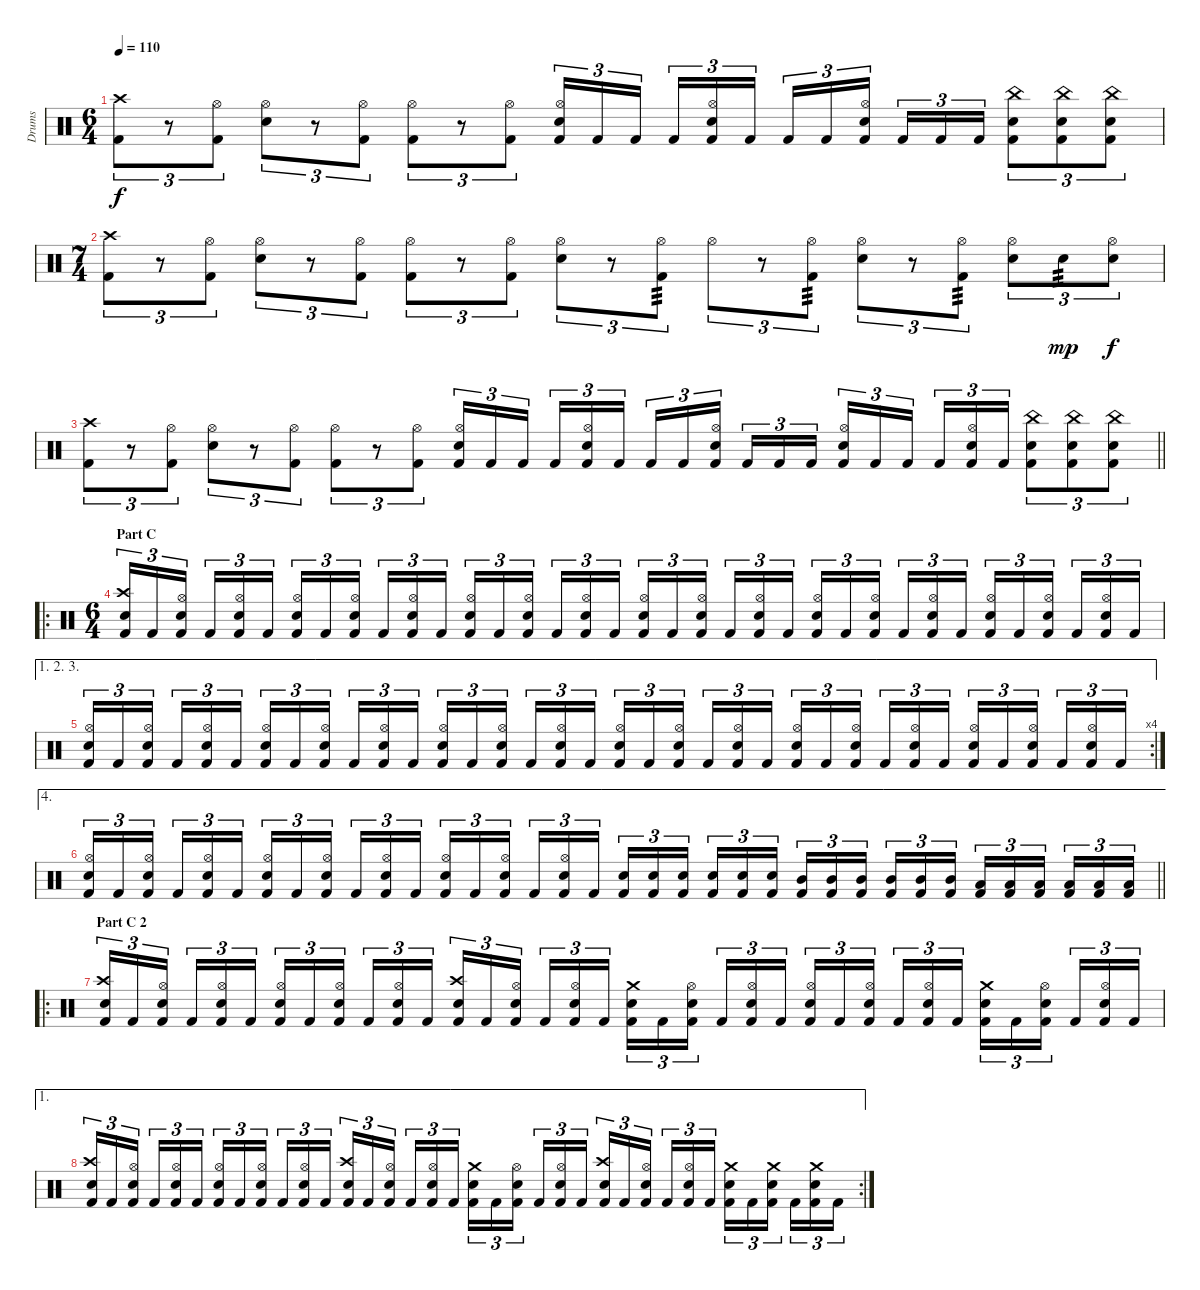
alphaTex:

\track ("Drums" "Drums") {instrument percussion}
\staff {score}
\articulation defaults
\ts (6 4)
\tempo 110
\clef neutral
\ks c
("Kick (hit) 2" "Crash high (hit)").8{tu (3 2) dy f} r.8{tu (3 2)} ("Hi-Hat (open)" "Kick (hit) 2").8{tu (3 2)} ("Hi-Hat (open)" "Snare (hit) 2").8{tu (3 2)} r.8{tu (3 2)} ("Hi-Hat (open)" "Kick (hit) 2").8{tu (3 2)} ("Hi-Hat (open)" "Kick (hit) 2").8{tu (3 2)} r.8{tu (3 2)} ("Hi-Hat (open)" "Kick (hit) 2").8{tu (3 2)} ("Hi-Hat (open)" "Snare (hit) 2" "Kick (hit) 2").16{tu (3 2)} "Kick (hit) 2".16{tu (3 2)} "Kick (hit) 2".16{tu (3 2) beam splitsecondary} "Kick (hit) 2".16{tu (3 2)} ("Kick (hit) 2" "Snare (hit) 2" "Hi-Hat (open)").16{tu (3 2)} "Kick (hit) 2".16{tu (3 2) beam splitsecondary} "Kick (hit) 2".16{tu (3 2)} "Kick (hit) 2".16{tu (3 2)} ("Kick (hit) 2" "Snare (hit) 2" "Hi-Hat (open)").16{tu (3 2) beam splitsecondary} "Kick (hit) 2".16{tu (3 2)} "Kick (hit) 2".16{tu (3 2)} "Kick (hit) 2".16{tu (3 2)} ("Kick (hit) 2" "Snare (hit) 2" "China (hit)").8{tu (3 2)} ("Kick (hit) 2" "Snare (hit) 2" "China (hit)").8{tu (3 2)} ("Snare (hit) 2" "Kick (hit) 2" "China (hit)").8{tu (3 2)} |
\ts (7 4)
("Kick (hit) 2" "Crash high (hit)").8{tu (3 2)} r.8{tu (3 2)} ("Hi-Hat (open)" "Kick (hit) 2").8{tu (3 2)} ("Hi-Hat (open)" "Snare (hit) 2").8{tu (3 2)} r.8{tu (3 2)} ("Hi-Hat (open)" "Kick (hit) 2").8{tu (3 2)} ("Hi-Hat (open)" "Kick (hit) 2").8{tu (3 2)} r.8{tu (3 2)} ("Hi-Hat (open)" "Kick (hit) 2").8{tu (3 2)} ("Hi-Hat (open)" "Snare (hit) 2").8{tu (3 2)} r.8{tu (3 2)} ("Kick (hit) 2" "Hi-Hat (open)").8{tu (3 2) tp 3} "Hi-Hat (open)".8{tu (3 2)} r.8{tu (3 2)} ("Kick (hit) 2" "Hi-Hat (open)").8{tu (3 2) tp 3} ("Hi-Hat (open)" "Snare (hit) 2").8{tu (3 2)} r.8{tu (3 2)} ("Kick (hit) 2" "Hi-Hat (open)").8{tu (3 2) tp 3} ("Snare (hit) 2" "Hi-Hat (open)").8{tu (3 2)} "Snare (hit) 2".8{tu (3 2) tp 3 dy mp} ("Snare (hit) 2" "Hi-Hat (open)").8{tu (3 2) dy f} |
\barLineRight lightlight
("Kick (hit) 2" "Crash high (hit)").8{tu (3 2)} r.8{tu (3 2)} ("Hi-Hat (open)" "Kick (hit) 2").8{tu (3 2)} ("Hi-Hat (open)" "Snare (hit) 2").8{tu (3 2)} r.8{tu (3 2)} ("Hi-Hat (open)" "Kick (hit) 2").8{tu (3 2)} ("Hi-Hat (open)" "Kick (hit) 2").8{tu (3 2)} r.8{tu (3 2)} ("Hi-Hat (open)" "Kick (hit) 2").8{tu (3 2)} ("Hi-Hat (open)" "Snare (hit) 2" "Kick (hit) 2").16{tu (3 2)} "Kick (hit) 2".16{tu (3 2)} "Kick (hit) 2".16{tu (3 2) beam splitsecondary} "Kick (hit) 2".16{tu (3 2)} ("Kick (hit) 2" "Snare (hit) 2" "Hi-Hat (open)").16{tu (3 2)} "Kick (hit) 2".16{tu (3 2)} "Kick (hit) 2".16{tu (3 2)} "Kick (hit) 2".16{tu (3 2)} ("Kick (hit) 2" "Snare (hit) 2" "Hi-Hat (open)").16{tu (3 2) beam splitsecondary} "Kick (hit) 2".16{tu (3 2)} "Kick (hit) 2".16{tu (3 2)} "Kick (hit) 2".16{tu (3 2)} ("Kick (hit) 2" "Snare (hit) 2" "Hi-Hat (open)").16{tu (3 2)} "Kick (hit) 2".16{tu (3 2)} "Kick (hit) 2".16{tu (3 2) beam splitsecondary} "Kick (hit) 2".16{tu (3 2)} ("Kick (hit) 2" "Snare (hit) 2" "Hi-Hat (open)").16{tu (3 2)} "Kick (hit) 2".16{tu (3 2)} ("Kick (hit) 2" "Snare (hit) 2" "China (hit)").8{tu (3 2)} ("Kick (hit) 2" "Snare (hit) 2" "China (hit)").8{tu (3 2)} ("Snare (hit) 2" "Kick (hit) 2" "China (hit)").8{tu (3 2)} |
\ro
\ts (6 4)
\section ("" "Part C")
("Snare (hit) 2" "Kick (hit) 2" "Crash high (hit)").16{tu (3 2)} "Kick (hit) 2".16{tu (3 2)} ("Kick (hit) 2" "Snare (hit) 2" "Hi-Hat (open)").16{tu (3 2) beam splitsecondary} "Kick (hit) 2".16{tu (3 2)} ("Kick (hit) 2" "Snare (hit) 2" "Hi-Hat (open)").16{tu (3 2)} "Kick (hit) 2".16{tu (3 2) beam splitsecondary} ("Kick (hit) 2" "Snare (hit) 2" "Hi-Hat (open)").16{tu (3 2)} "Kick (hit) 2".16{tu (3 2)} ("Kick (hit) 2" "Snare (hit) 2" "Hi-Hat (open)").16{tu (3 2) beam splitsecondary} "Kick (hit) 2".16{tu (3 2)} ("Kick (hit) 2" "Snare (hit) 2" "Hi-Hat (open)").16{tu (3 2)} "Kick (hit) 2".16{tu (3 2) beam splitsecondary} ("Snare (hit) 2" "Kick (hit) 2" "Hi-Hat (open)").16{tu (3 2)} "Kick (hit) 2".16{tu (3 2)} ("Kick (hit) 2" "Snare (hit) 2" "Hi-Hat (open)").16{tu (3 2) beam splitsecondary} "Kick (hit) 2".16{tu (3 2)} ("Kick (hit) 2" "Snare (hit) 2" "Hi-Hat (open)").16{tu (3 2)} "Kick (hit) 2".16{tu (3 2)} ("Snare (hit) 2" "Kick (hit) 2" "Hi-Hat (open)").16{tu (3 2)} "Kick (hit) 2".16{tu (3 2)} ("Kick (hit) 2" "Snare (hit) 2" "Hi-Hat (open)").16{tu (3 2) beam splitsecondary} "Kick (hit) 2".16{tu (3 2)} ("Kick (hit) 2" "Snare (hit) 2" "Hi-Hat (open)").16{tu (3 2)} "Kick (hit) 2".16{tu (3 2) beam splitsecondary} ("Kick (hit) 2" "Snare (hit) 2" "Hi-Hat (open)").16{tu (3 2)} "Kick (hit) 2".16{tu (3 2)} ("Kick (hit) 2" "Snare (hit) 2" "Hi-Hat (open)").16{tu (3 2) beam splitsecondary} "Kick (hit) 2".16{tu (3 2)} ("Kick (hit) 2" "Snare (hit) 2" "Hi-Hat (open)").16{tu (3 2)} "Kick (hit) 2".16{tu (3 2) beam splitsecondary} ("Kick (hit) 2" "Snare (hit) 2" "Hi-Hat (open)").16{tu (3 2)} "Kick (hit) 2".16{tu (3 2)} ("Kick (hit) 2" "Snare (hit) 2" "Hi-Hat (open)").16{tu (3 2) beam splitsecondary} "Kick (hit) 2".16{tu (3 2)} ("Kick (hit) 2" "Snare (hit) 2" "Hi-Hat (open)").16{tu (3 2)} "Kick (hit) 2".16{tu (3 2)} |
\ae (1 2 3)
\rc 4
("Snare (hit) 2" "Kick (hit) 2" "Hi-Hat (open)").16{tu (3 2)} "Kick (hit) 2".16{tu (3 2)} ("Kick (hit) 2" "Snare (hit) 2" "Hi-Hat (open)").16{tu (3 2) beam splitsecondary} "Kick (hit) 2".16{tu (3 2)} ("Kick (hit) 2" "Snare (hit) 2" "Hi-Hat (open)").16{tu (3 2)} "Kick (hit) 2".16{tu (3 2) beam splitsecondary} ("Kick (hit) 2" "Snare (hit) 2" "Hi-Hat (open)").16{tu (3 2)} "Kick (hit) 2".16{tu (3 2)} ("Kick (hit) 2" "Snare (hit) 2" "Hi-Hat (open)").16{tu (3 2) beam splitsecondary} "Kick (hit) 2".16{tu (3 2)} ("Kick (hit) 2" "Snare (hit) 2" "Hi-Hat (open)").16{tu (3 2)} "Kick (hit) 2".16{tu (3 2) beam splitsecondary} ("Snare (hit) 2" "Kick (hit) 2" "Hi-Hat (open)").16{tu (3 2)} "Kick (hit) 2".16{tu (3 2)} ("Kick (hit) 2" "Snare (hit) 2" "Hi-Hat (open)").16{tu (3 2) beam splitsecondary} "Kick (hit) 2".16{tu (3 2)} ("Kick (hit) 2" "Snare (hit) 2" "Hi-Hat (open)").16{tu (3 2)} "Kick (hit) 2".16{tu (3 2)} ("Snare (hit) 2" "Kick (hit) 2" "Hi-Hat (open)").16{tu (3 2)} "Kick (hit) 2".16{tu (3 2)} ("Kick (hit) 2" "Snare (hit) 2" "Hi-Hat (open)").16{tu (3 2) beam splitsecondary} "Kick (hit) 2".16{tu (3 2)} ("Kick (hit) 2" "Snare (hit) 2" "Hi-Hat (open)").16{tu (3 2)} "Kick (hit) 2".16{tu (3 2) beam splitsecondary} ("Kick (hit) 2" "Snare (hit) 2" "Hi-Hat (open)").16{tu (3 2)} "Kick (hit) 2".16{tu (3 2)} ("Kick (hit) 2" "Snare (hit) 2" "Hi-Hat (open)").16{tu (3 2) beam splitsecondary} "Kick (hit) 2".16{tu (3 2)} ("Kick (hit) 2" "Snare (hit) 2" "Hi-Hat (open)").16{tu (3 2)} "Kick (hit) 2".16{tu (3 2) beam splitsecondary} ("Kick (hit) 2" "Snare (hit) 2" "Hi-Hat (open)").16{tu (3 2)} "Kick (hit) 2".16{tu (3 2)} ("Kick (hit) 2" "Snare (hit) 2" "Hi-Hat (open)").16{tu (3 2) beam splitsecondary} "Kick (hit) 2".16{tu (3 2)} ("Kick (hit) 2" "Snare (hit) 2" "Hi-Hat (open)").16{tu (3 2)} "Kick (hit) 2".16{tu (3 2)} |
\ae 4
\barLineRight lightlight
("Snare (hit) 2" "Kick (hit) 2" "Hi-Hat (open)").16{tu (3 2)} "Kick (hit) 2".16{tu (3 2)} ("Kick (hit) 2" "Snare (hit) 2" "Hi-Hat (open)").16{tu (3 2) beam splitsecondary} "Kick (hit) 2".16{tu (3 2)} ("Kick (hit) 2" "Snare (hit) 2" "Hi-Hat (open)").16{tu (3 2)} "Kick (hit) 2".16{tu (3 2) beam splitsecondary} ("Kick (hit) 2" "Snare (hit) 2" "Hi-Hat (open)").16{tu (3 2)} "Kick (hit) 2".16{tu (3 2)} ("Kick (hit) 2" "Snare (hit) 2" "Hi-Hat (open)").16{tu (3 2) beam splitsecondary} "Kick (hit) 2".16{tu (3 2)} ("Kick (hit) 2" "Snare (hit) 2" "Hi-Hat (open)").16{tu (3 2)} "Kick (hit) 2".16{tu (3 2) beam splitsecondary} ("Snare (hit) 2" "Kick (hit) 2" "Hi-Hat (open)").16{tu (3 2)} "Kick (hit) 2".16{tu (3 2)} ("Kick (hit) 2" "Snare (hit) 2" "Hi-Hat (open)").16{tu (3 2) beam splitsecondary} "Kick (hit) 2".16{tu (3 2)} ("Kick (hit) 2" "Snare (hit) 2" "Hi-Hat (open)").16{tu (3 2)} "Kick (hit) 2".16{tu (3 2)} ("Snare (hit) 2" "Kick (hit) 2").16{tu (3 2)} ("Kick (hit) 2" "Snare (hit) 2").16{tu (3 2)} ("Kick (hit) 2" "Snare (hit) 2").16{tu (3 2) beam splitsecondary} ("Kick (hit) 2" "Snare (hit) 2").16{tu (3 2)} ("Kick (hit) 2" "Snare (hit) 2").16{tu (3 2)} ("Kick (hit) 2" "Snare (hit) 2").16{tu (3 2) beam splitsecondary} ("Kick (hit) 2" "Mid Tom (hit)").16{tu (3 2)} ("Kick (hit) 2" "Mid Tom (hit)").16{tu (3 2)} ("Kick (hit) 2" "Mid Tom (hit)").16{tu (3 2) beam splitsecondary} ("Kick (hit) 2" "Mid Tom (hit)").16{tu (3 2)} ("Kick (hit) 2" "Mid Tom (hit)").16{tu (3 2)} ("Kick (hit) 2" "Mid Tom (hit)").16{tu (3 2) beam splitsecondary} ("Kick (hit) 2" "Low Tom (hit)").16{tu (3 2)} ("Kick (hit) 2" "Low Tom (hit)").16{tu (3 2)} ("Kick (hit) 2" "Low Tom (hit)").16{tu (3 2) beam splitsecondary} ("Kick (hit) 2" "Low Tom (hit)").16{tu (3 2)} ("Kick (hit) 2" "Low Tom (hit)").16{tu (3 2)} ("Kick (hit) 2" "Low Tom (hit)").16{tu (3 2)} |
\ro
\section ("" "Part C 2")
("Snare (hit) 2" "Kick (hit) 2" "Crash high (hit)").16{tu (3 2)} "Kick (hit) 2".16{tu (3 2)} ("Kick (hit) 2" "Snare (hit) 2" "Hi-Hat (open)").16{tu (3 2) beam splitsecondary} "Kick (hit) 2".16{tu (3 2)} ("Kick (hit) 2" "Snare (hit) 2" "Hi-Hat (open)").16{tu (3 2)} "Kick (hit) 2".16{tu (3 2) beam splitsecondary} ("Kick (hit) 2" "Snare (hit) 2" "Hi-Hat (open)").16{tu (3 2)} "Kick (hit) 2".16{tu (3 2)} ("Kick (hit) 2" "Snare (hit) 2" "Hi-Hat (open)").16{tu (3 2) beam splitsecondary} "Kick (hit) 2".16{tu (3 2)} ("Kick (hit) 2" "Snare (hit) 2" "Hi-Hat (open)").16{tu (3 2)} "Kick (hit) 2".16{tu (3 2) beam splitsecondary} ("Snare (hit) 2" "Kick (hit) 2" "Crash high (hit)").16{tu (3 2)} "Kick (hit) 2".16{tu (3 2)} ("Kick (hit) 2" "Snare (hit) 2" "Hi-Hat (open)").16{tu (3 2) beam splitsecondary} "Kick (hit) 2".16{tu (3 2)} ("Kick (hit) 2" "Snare (hit) 2" "Hi-Hat (open)").16{tu (3 2)} "Kick (hit) 2".16{tu (3 2)} ("Snare (hit) 2" "Kick (hit) 2" "Crash medium (hit)").16{tu (3 2)} "Kick (hit) 2".16{tu (3 2)} ("Kick (hit) 2" "Snare (hit) 2" "Hi-Hat (open)").16{tu (3 2) beam splitsecondary} "Kick (hit) 2".16{tu (3 2)} ("Kick (hit) 2" "Snare (hit) 2" "Hi-Hat (open)").16{tu (3 2)} "Kick (hit) 2".16{tu (3 2) beam splitsecondary} ("Kick (hit) 2" "Snare (hit) 2" "Hi-Hat (open)").16{tu (3 2)} "Kick (hit) 2".16{tu (3 2)} ("Kick (hit) 2" "Snare (hit) 2" "Hi-Hat (open)").16{tu (3 2) beam splitsecondary} "Kick (hit) 2".16{tu (3 2)} ("Kick (hit) 2" "Snare (hit) 2" "Hi-Hat (open)").16{tu (3 2)} "Kick (hit) 2".16{tu (3 2) beam splitsecondary} ("Kick (hit) 2" "Snare (hit) 2" "Crash medium (hit)").16{tu (3 2)} "Kick (hit) 2".16{tu (3 2)} ("Kick (hit) 2" "Snare (hit) 2" "Hi-Hat (open)").16{tu (3 2) beam splitsecondary} "Kick (hit) 2".16{tu (3 2)} ("Kick (hit) 2" "Snare (hit) 2" "Hi-Hat (open)").16{tu (3 2)} "Kick (hit) 2".16{tu (3 2)} |
\ae 1
\rc 2
("Snare (hit) 2" "Kick (hit) 2" "Crash high (hit)").16{tu (3 2)} "Kick (hit) 2".16{tu (3 2)} ("Kick (hit) 2" "Snare (hit) 2" "Hi-Hat (open)").16{tu (3 2) beam splitsecondary} "Kick (hit) 2".16{tu (3 2)} ("Kick (hit) 2" "Snare (hit) 2" "Hi-Hat (open)").16{tu (3 2)} "Kick (hit) 2".16{tu (3 2) beam splitsecondary} ("Kick (hit) 2" "Snare (hit) 2" "Hi-Hat (open)").16{tu (3 2)} "Kick (hit) 2".16{tu (3 2)} ("Kick (hit) 2" "Snare (hit) 2" "Hi-Hat (open)").16{tu (3 2) beam splitsecondary} "Kick (hit) 2".16{tu (3 2)} ("Kick (hit) 2" "Snare (hit) 2" "Hi-Hat (open)").16{tu (3 2)} "Kick (hit) 2".16{tu (3 2) beam splitsecondary} ("Snare (hit) 2" "Kick (hit) 2" "Crash high (hit)").16{tu (3 2)} "Kick (hit) 2".16{tu (3 2)} ("Kick (hit) 2" "Snare (hit) 2" "Hi-Hat (open)").16{tu (3 2) beam splitsecondary} "Kick (hit) 2".16{tu (3 2)} ("Kick (hit) 2" "Snare (hit) 2" "Hi-Hat (open)").16{tu (3 2)} "Kick (hit) 2".16{tu (3 2)} ("Snare (hit) 2" "Kick (hit) 2" "Crash medium (hit)").16{tu (3 2)} "Kick (hit) 2".16{tu (3 2)} ("Kick (hit) 2" "Snare (hit) 2" "Hi-Hat (open)").16{tu (3 2) beam splitsecondary} "Kick (hit) 2".16{tu (3 2)} ("Kick (hit) 2" "Snare (hit) 2" "Hi-Hat (open)").16{tu (3 2)} "Kick (hit) 2".16{tu (3 2) beam splitsecondary} ("Kick (hit) 2" "Snare (hit) 2" "Crash high (hit)").16{tu (3 2)} "Kick (hit) 2".16{tu (3 2)} ("Kick (hit) 2" "Snare (hit) 2" "Hi-Hat (open)").16{tu (3 2) beam splitsecondary} "Kick (hit) 2".16{tu (3 2)} ("Kick (hit) 2" "Snare (hit) 2" "Hi-Hat (open)").16{tu (3 2)} "Kick (hit) 2".16{tu (3 2) beam splitsecondary} ("Kick (hit) 2" "Snare (hit) 2" "Crash medium (hit)").16{tu (3 2)} "Kick (hit) 2".16{tu (3 2)} ("Kick (hit) 2" "Snare (hit) 2" "Crash medium (hit)").16{tu (3 2) beam splitsecondary} "Kick (hit) 2".16{tu (3 2)} ("Kick (hit) 2" "Snare (hit) 2" "Crash medium (hit)").16{tu (3 2)} "Kick (hit) 2".16{tu (3 2)}
